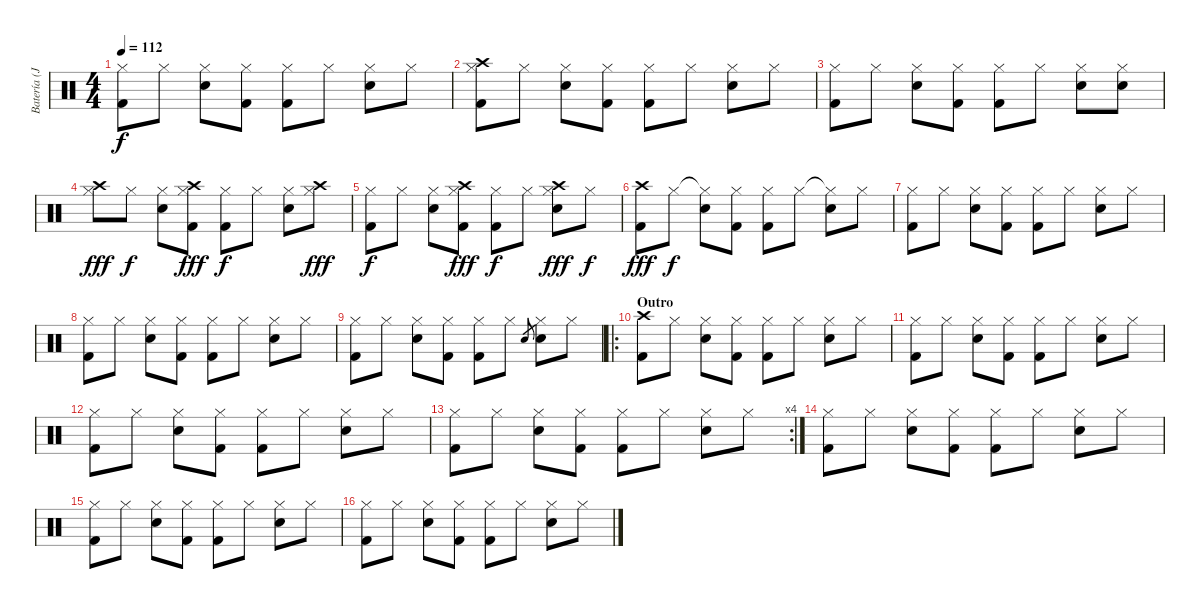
\track ("Batería (Javi Molina)" "Batería (J") {instrument percussion}
\staff {score}
\articulation defaults
\ts (4 4)
\tempo 112
\clef neutral
\ks c
("Hi-Hat (closed)" "Kick (hit) 2").8{dy f} "Hi-Hat (closed)".8 ("Hi-Hat (closed)" "Electric Snare (hit)").8 ("Hi-Hat (closed)" "Kick (hit) 2").8 ("Hi-Hat (closed)" "Kick (hit) 2").8 "Hi-Hat (closed)".8 ("Hi-Hat (closed)" "Electric Snare (hit)").8 "Hi-Hat (closed)".8 |
("Hi-Hat (closed)" "Kick (hit) 2" "Crash high (hit)").8 "Hi-Hat (closed)".8 ("Hi-Hat (closed)" "Electric Snare (hit)").8 ("Hi-Hat (closed)" "Kick (hit) 2").8 ("Hi-Hat (closed)" "Kick (hit) 2").8 "Hi-Hat (closed)".8 ("Hi-Hat (closed)" "Electric Snare (hit)").8 "Hi-Hat (closed)".8 |
("Hi-Hat (closed)" "Kick (hit) 2").8 "Hi-Hat (closed)".8 ("Hi-Hat (closed)" "Electric Snare (hit)").8 ("Hi-Hat (closed)" "Kick (hit) 2").8 ("Hi-Hat (closed)" "Kick (hit) 2").8 "Hi-Hat (closed)".8 ("Hi-Hat (closed)" "Electric Snare (hit)").8 ("Hi-Hat (closed)" "Electric Snare (hit)").8 |
("Hi-Hat (closed)" "Crash high (hit)").8{dy fff} "Hi-Hat (closed)".8{dy f} ("Hi-Hat (closed)" "Electric Snare (hit)").8 ("Hi-Hat (closed)" "Crash high (hit)" "Kick (hit) 2").8{dy fff} ("Hi-Hat (closed)" "Kick (hit) 2").8{dy f} "Hi-Hat (closed)".8 ("Hi-Hat (closed)" "Electric Snare (hit)").8 ("Hi-Hat (closed)" "Crash high (hit)").8{dy fff} |
("Hi-Hat (closed)" "Kick (hit) 2").8{dy f} "Hi-Hat (closed)".8 ("Hi-Hat (closed)" "Electric Snare (hit)").8 ("Hi-Hat (closed)" "Crash high (hit)" "Kick (hit) 2").8{dy fff} ("Hi-Hat (closed)" "Kick (hit) 2").8{dy f} "Hi-Hat (closed)".8 ("Hi-Hat (closed)" "Crash high (hit)" "Electric Snare (hit)").8{dy fff} "Hi-Hat (closed)".8{dy f} |
("Kick (hit) 2" "Crash high (hit)").8{dy fff} "Hi-Hat (closed)".8{dy f} ("Hi-Hat (closed)"{t} "Electric Snare (hit)").8 ("Hi-Hat (closed)" "Kick (hit) 2").8 ("Hi-Hat (closed)" "Kick (hit) 2").8 "Hi-Hat (closed)".8 ("Hi-Hat (closed)"{t} "Electric Snare (hit)").8 "Hi-Hat (closed)".8 |
("Hi-Hat (closed)" "Kick (hit) 2").8 "Hi-Hat (closed)".8 ("Hi-Hat (closed)" "Electric Snare (hit)").8 ("Hi-Hat (closed)" "Kick (hit) 2").8 ("Hi-Hat (closed)" "Kick (hit) 2").8 "Hi-Hat (closed)".8 ("Hi-Hat (closed)" "Electric Snare (hit)").8 "Hi-Hat (closed)".8 |
("Hi-Hat (closed)" "Kick (hit) 2").8 "Hi-Hat (closed)".8 ("Hi-Hat (closed)" "Electric Snare (hit)").8 ("Hi-Hat (closed)" "Kick (hit) 2").8 ("Hi-Hat (closed)" "Kick (hit) 2").8 "Hi-Hat (closed)".8 ("Hi-Hat (closed)" "Electric Snare (hit)").8 "Hi-Hat (closed)".8 |
("Hi-Hat (closed)" "Kick (hit) 2").8 "Hi-Hat (closed)".8 ("Hi-Hat (closed)" "Electric Snare (hit)").8 ("Hi-Hat (closed)" "Kick (hit) 2").8 ("Hi-Hat (closed)" "Kick (hit) 2").8 "Hi-Hat (closed)".8 "Electric Snare (hit)".8{gr} ("Hi-Hat (closed)" "Electric Snare (hit)").8 "Hi-Hat (closed)".8 |
\ro
\section ("" "Outro")
("Kick (hit) 2" "Crash high (hit)").8 "Hi-Hat (closed)".8 ("Hi-Hat (closed)" "Electric Snare (hit)").8 ("Hi-Hat (closed)" "Kick (hit) 2").8 ("Hi-Hat (closed)" "Kick (hit) 2").8 "Hi-Hat (closed)".8 ("Hi-Hat (closed)" "Electric Snare (hit)").8 "Hi-Hat (closed)".8 |
("Hi-Hat (closed)" "Kick (hit) 2").8 "Hi-Hat (closed)".8 ("Hi-Hat (closed)" "Electric Snare (hit)").8 ("Hi-Hat (closed)" "Kick (hit) 2").8 ("Hi-Hat (closed)" "Kick (hit) 2").8 "Hi-Hat (closed)".8 ("Hi-Hat (closed)" "Electric Snare (hit)").8 "Hi-Hat (closed)".8 |
("Hi-Hat (closed)" "Kick (hit) 2").8 "Hi-Hat (closed)".8 ("Hi-Hat (closed)" "Electric Snare (hit)").8 ("Hi-Hat (closed)" "Kick (hit) 2").8 ("Hi-Hat (closed)" "Kick (hit) 2").8 "Hi-Hat (closed)".8 ("Hi-Hat (closed)" "Electric Snare (hit)").8 "Hi-Hat (closed)".8 |
\rc 4
("Hi-Hat (closed)" "Kick (hit) 2").8 "Hi-Hat (closed)".8 ("Hi-Hat (closed)" "Electric Snare (hit)").8 ("Hi-Hat (closed)" "Kick (hit) 2").8 ("Hi-Hat (closed)" "Kick (hit) 2").8 "Hi-Hat (closed)".8 ("Hi-Hat (closed)" "Electric Snare (hit)").8 "Hi-Hat (closed)".8 |
("Hi-Hat (closed)" "Kick (hit) 2").8 "Hi-Hat (closed)".8 ("Hi-Hat (closed)" "Electric Snare (hit)").8 ("Hi-Hat (closed)" "Kick (hit) 2").8 ("Hi-Hat (closed)" "Kick (hit) 2").8 "Hi-Hat (closed)".8 ("Hi-Hat (closed)" "Electric Snare (hit)").8 "Hi-Hat (closed)".8 |
("Hi-Hat (closed)" "Kick (hit) 2").8 "Hi-Hat (closed)".8 ("Hi-Hat (closed)" "Electric Snare (hit)").8 ("Hi-Hat (closed)" "Kick (hit) 2").8 ("Hi-Hat (closed)" "Kick (hit) 2").8 "Hi-Hat (closed)".8 ("Hi-Hat (closed)" "Electric Snare (hit)").8 "Hi-Hat (closed)".8 |
("Hi-Hat (closed)" "Kick (hit) 2").8 "Hi-Hat (closed)".8 ("Hi-Hat (closed)" "Electric Snare (hit)").8 ("Hi-Hat (closed)" "Kick (hit) 2").8 ("Hi-Hat (closed)" "Kick (hit) 2").8 "Hi-Hat (closed)".8 ("Hi-Hat (closed)" "Electric Snare (hit)").8 "Hi-Hat (closed)".8
